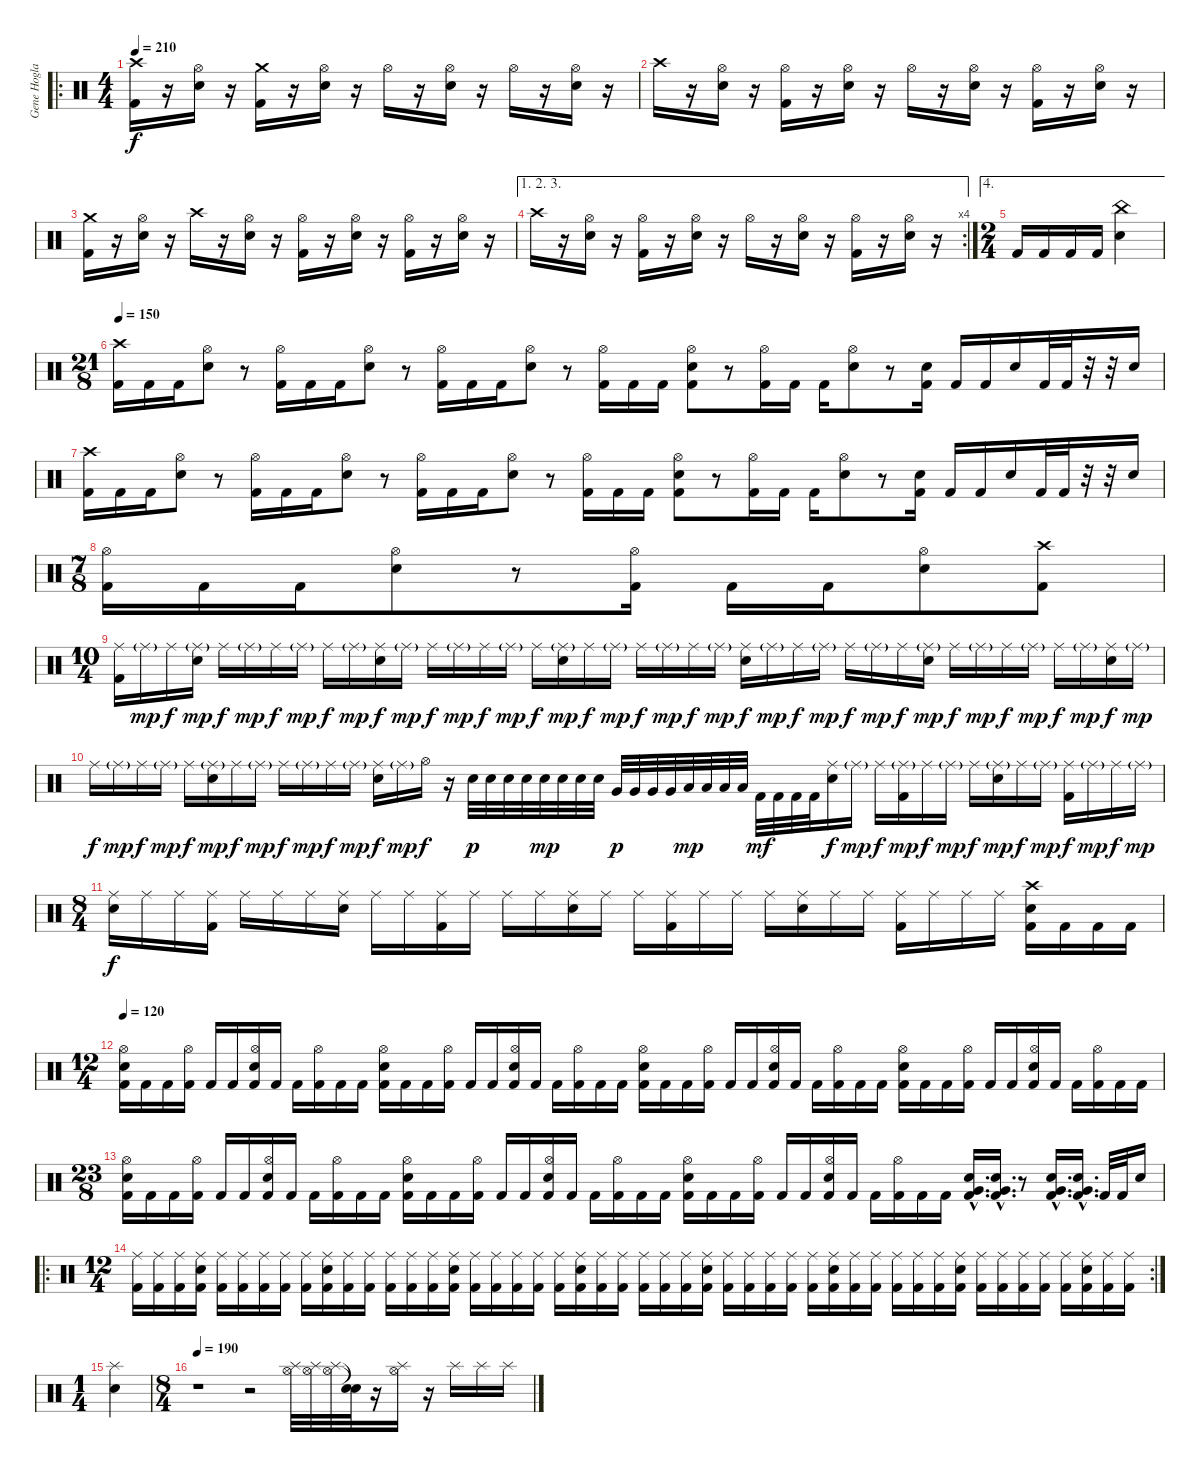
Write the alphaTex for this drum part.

\track ("Gene Hoglan" "Gene Hogla") {instrument percussion}
\staff {score}
\articulation defaults
\ro
\ts (4 4)
\tempo 210
\clef neutral
\ks c
("Crash high (hit)" "Kick (hit) 2").16{dy f} r.16 ("Hi-Hat (open)" "Electric Snare (hit)").16 r.16 ("Crash medium (hit)" "Kick (hit) 2").16 r.16 ("Hi-Hat (open)" "Electric Snare (hit)").16 r.16 "Hi-Hat (open)".16 r.16 ("Hi-Hat (open)" "Electric Snare (hit)").16 r.16 "Hi-Hat (open)".16 r.16 ("Hi-Hat (open)" "Electric Snare (hit)").16 r.16 |
"Crash high (hit)".16 r.16 ("Hi-Hat (open)" "Electric Snare (hit)").16 r.16 ("Hi-Hat (open)" "Kick (hit) 2").16 r.16 ("Hi-Hat (open)" "Electric Snare (hit)").16 r.16 "Hi-Hat (open)".16 r.16 ("Hi-Hat (open)" "Electric Snare (hit)").16 r.16 ("Hi-Hat (open)" "Kick (hit) 2").16 r.16 ("Hi-Hat (open)" "Electric Snare (hit)").16 r.16 |
("Crash medium (hit)" "Kick (hit) 2").16 r.16 ("Hi-Hat (open)" "Electric Snare (hit)").16 r.16 "Crash high (hit)".16 r.16 ("Hi-Hat (open)" "Electric Snare (hit)").16 r.16 ("Hi-Hat (open)" "Kick (hit) 2").16 r.16 ("Hi-Hat (open)" "Electric Snare (hit)").16 r.16 ("Hi-Hat (open)" "Kick (hit) 2").16 r.16 ("Hi-Hat (open)" "Electric Snare (hit)").16 r.16 |
\ae (1 2 3)
\rc 4 "Crash high (hit)".16
r.16 ("Hi-Hat (open)" "Electric Snare (hit)").16 r.16 ("Hi-Hat (open)" "Kick (hit) 2").16 r.16 ("Hi-Hat (open)" "Electric Snare (hit)").16 r.16 "Hi-Hat (open)".16 r.16 ("Hi-Hat (open)" "Electric Snare (hit)").16 r.16 ("Hi-Hat (open)" "Kick (hit) 2").16 r.16 ("Hi-Hat (open)" "Electric Snare (hit)").16 r.16 |
\ae 4
\ts (2 4)
"Kick (hit) 2".16 "Kick (hit) 2".16 "Kick (hit) 2".16 "Kick (hit) 2".16 ("China (hit)" "Electric Snare (hit)").4 |
\ts (21 8)
\tempo 150
("Crash high (hit)" "Kick (hit) 2").16 "Kick (hit) 2".16 "Kick (hit) 2".16 ("Hi-Hat (open)" "Electric Snare (hit)").8 r.8 ("Hi-Hat (open)" "Kick (hit) 2").16 "Kick (hit) 2".16 "Kick (hit) 2".16 ("Hi-Hat (open)" "Electric Snare (hit)").8 r.8 ("Hi-Hat (open)" "Kick (hit) 2").16 "Kick (hit) 2".16 "Kick (hit) 2".16 ("Hi-Hat (open)" "Electric Snare (hit)").8 r.8 ("Hi-Hat (open)" "Kick (hit) 2").16 "Kick (hit) 2".16 "Kick (hit) 2".16 ("Hi-Hat (open)" "Electric Snare (hit)" "Kick (hit) 2").8 r.8 ("Hi-Hat (open)" "Kick (hit) 2").16 "Kick (hit) 2".16 "Kick (hit) 2".16 ("Hi-Hat (open)" "Electric Snare (hit)").8 r.8 ("Electric Snare (hit)" "Kick (hit) 2").16 "Kick (hit) 2".16 "Kick (hit) 2".16 "Electric Snare (hit)".16 "Kick (hit) 2".32 "Kick (hit) 2".32 r.32 r.32 "Electric Snare (hit)".16 |
("Crash high (hit)" "Kick (hit) 2").16 "Kick (hit) 2".16 "Kick (hit) 2".16 ("Hi-Hat (open)" "Electric Snare (hit)").8 r.8 ("Hi-Hat (open)" "Kick (hit) 2").16 "Kick (hit) 2".16 "Kick (hit) 2".16 ("Hi-Hat (open)" "Electric Snare (hit)").8 r.8 ("Hi-Hat (open)" "Kick (hit) 2").16 "Kick (hit) 2".16 "Kick (hit) 2".16 ("Hi-Hat (open)" "Electric Snare (hit)").8 r.8 ("Hi-Hat (open)" "Kick (hit) 2").16 "Kick (hit) 2".16 "Kick (hit) 2".16 ("Hi-Hat (open)" "Electric Snare (hit)" "Kick (hit) 2").8 r.8 ("Hi-Hat (open)" "Kick (hit) 2").16 "Kick (hit) 2".16 "Kick (hit) 2".16 ("Hi-Hat (open)" "Electric Snare (hit)").8 r.8 ("Electric Snare (hit)" "Kick (hit) 2").16 "Kick (hit) 2".16 "Kick (hit) 2".16 "Electric Snare (hit)".16 "Kick (hit) 2".32 "Kick (hit) 2".32 r.32 r.32 "Electric Snare (hit)".16 |
\ts (7 8)
("Hi-Hat (open)" "Kick (hit) 2").16 "Kick (hit) 2".16 "Kick (hit) 2".16 ("Hi-Hat (open)" "Electric Snare (hit)").8 r.8 ("Hi-Hat (open)" "Kick (hit) 2").16 "Kick (hit) 2".16 "Kick (hit) 2".16 ("Hi-Hat (open)" "Electric Snare (hit)").8 ("Crash high (hit)" "Kick (hit) 2").8 |
\ts (10 4)
("Ride (middle)" "Kick (hit) 2").16 "Ride (middle)"{g}.16{dy mp} "Ride (middle)".16{dy f} ("Ride (middle)"{g} "Electric Snare (hit)").16{dy mp} "Ride (middle)".16{dy f} "Ride (middle)"{g}.16{dy mp} "Ride (middle)".16{dy f} "Ride (middle)"{g}.16{dy mp} "Ride (middle)".16{dy f} "Ride (middle)"{g}.16{dy mp} ("Ride (middle)" "Electric Snare (hit)").16{dy f} "Ride (middle)"{g}.16{dy mp} "Ride (middle)".16{dy f} "Ride (middle)"{g}.16{dy mp} "Ride (middle)".16{dy f} "Ride (middle)"{g}.16{dy mp} "Ride (middle)".16{dy f} ("Ride (middle)"{g} "Electric Snare (hit)").16{dy mp} "Ride (middle)".16{dy f} "Ride (middle)"{g}.16{dy mp} "Ride (middle)".16{dy f} "Ride (middle)"{g}.16{dy mp} "Ride (middle)".16{dy f} "Ride (middle)"{g}.16{dy mp} ("Ride (middle)" "Electric Snare (hit)").16{dy f} "Ride (middle)"{g}.16{dy mp} "Ride (middle)".16{dy f} "Ride (middle)"{g}.16{dy mp} "Ride (middle)".16{dy f} "Ride (middle)"{g}.16{dy mp} "Ride (middle)".16{dy f} ("Ride (middle)"{g} "Electric Snare (hit)").16{dy mp} "Ride (middle)".16{dy f} "Ride (middle)"{g}.16{dy mp} "Ride (middle)".16{dy f} "Ride (middle)"{g}.16{dy mp} "Ride (middle)".16{dy f} "Ride (middle)"{g}.16{dy mp} ("Ride (middle)" "Electric Snare (hit)").16{dy f} "Ride (middle)"{g}.16{dy mp} |
"Ride (middle)".16{dy f} "Ride (middle)"{g}.16{dy mp} "Ride (middle)".16{dy f} "Ride (middle)"{g}.16{dy mp} "Ride (middle)".16{dy f} ("Ride (middle)"{g} "Electric Snare (hit)").16{dy mp} "Ride (middle)".16{dy f} "Ride (middle)"{g}.16{dy mp} "Ride (middle)".16{dy f} "Ride (middle)"{g}.16{dy mp} "Ride (middle)".16{dy f} "Ride (middle)"{g}.16{dy mp} ("Ride (middle)" "Electric Snare (hit)").16{dy f} "Ride (middle)"{g}.16{dy mp} "Hi-Hat (open)".16{dy f} r.16 "Electric Snare (hit)".32{dy p} "Electric Snare (hit)".32 "Electric Snare (hit)".32 "Electric Snare (hit)".32 "Electric Snare (hit)".32{dy mp} "Electric Snare (hit)".32 "Electric Snare (hit)".32 "Electric Snare (hit)".32 "Very Low Tom (hit)".32{dy p} "Very Low Tom (hit)".32 "Very Low Tom (hit)".32 "Very Low Tom (hit)".32 "Low Tom (hit)".32{dy mp} "Low Tom (hit)".32 "Low Tom (hit)".32 "Low Tom (hit)".32 "Kick (hit) 2".32{dy mf} "Kick (hit) 2".32 "Kick (hit) 2".32 "Kick (hit) 2".32 ("Ride (middle)" "Electric Snare (hit)").16{dy f} "Ride (middle)"{g}.16{dy mp} "Ride (middle)".16{dy f} ("Ride (middle)"{g} "Kick (hit) 2").16{dy mp} "Ride (middle)".16{dy f} "Ride (middle)"{g}.16{dy mp} "Ride (middle)".16{dy f} ("Ride (middle)"{g} "Electric Snare (hit)").16{dy mp} "Ride (middle)".16{dy f} "Ride (middle)"{g}.16{dy mp} ("Ride (middle)" "Kick (hit) 2").16{dy f} "Ride (middle)"{g}.16{dy mp} "Ride (middle)".16{dy f} "Ride (middle)"{g}.16{dy mp} |
\ts (8 4)
("Ride (middle)" "Electric Snare (hit)").16{dy f} "Ride (middle)".16 "Ride (middle)".16 ("Ride (middle)" "Kick (hit) 2").16 "Ride (middle)".16 "Ride (middle)".16 "Ride (middle)".16 ("Ride (middle)" "Electric Snare (hit)").16 "Ride (middle)".16 "Ride (middle)".16 ("Ride (middle)" "Kick (hit) 2").16 "Ride (middle)".16 "Ride (middle)".16 "Ride (middle)".16 ("Ride (middle)" "Electric Snare (hit)").16 "Ride (middle)".16 "Ride (middle)".16 ("Ride (middle)" "Kick (hit) 2").16 "Ride (middle)".16 "Ride (middle)".16 "Ride (middle)".16 ("Ride (middle)" "Electric Snare (hit)").16 "Ride (middle)".16 "Ride (middle)".16 ("Ride (middle)" "Kick (hit) 2").16 "Ride (middle)".16 "Ride (middle)".16 "Ride (middle)".16 ("Crash high (hit)" "Electric Snare (hit)" "Kick (hit) 2").16 "Kick (hit) 2".16 "Kick (hit) 2".16 "Kick (hit) 2".16 |
\ts (12 4)
\tempo 120
("Hi-Hat (open)" "Electric Snare (hit)" "Kick (hit) 2").16 "Kick (hit) 2".16 "Kick (hit) 2".16 ("Hi-Hat (open)" "Kick (hit) 2").16 "Kick (hit) 2".16 "Kick (hit) 2".16 ("Hi-Hat (open)" "Electric Snare (hit)" "Kick (hit) 2").16 "Kick (hit) 2".16 "Kick (hit) 2".16 ("Hi-Hat (open)" "Kick (hit) 2").16 "Kick (hit) 2".16 "Kick (hit) 2".16 ("Hi-Hat (open)" "Electric Snare (hit)" "Kick (hit) 2").16 "Kick (hit) 2".16 "Kick (hit) 2".16 ("Hi-Hat (open)" "Kick (hit) 2").16 "Kick (hit) 2".16 "Kick (hit) 2".16 ("Hi-Hat (open)" "Electric Snare (hit)" "Kick (hit) 2").16 "Kick (hit) 2".16 "Kick (hit) 2".16 ("Hi-Hat (open)" "Kick (hit) 2").16 "Kick (hit) 2".16 "Kick (hit) 2".16 ("Hi-Hat (open)" "Electric Snare (hit)" "Kick (hit) 2").16 "Kick (hit) 2".16 "Kick (hit) 2".16 ("Hi-Hat (open)" "Kick (hit) 2").16 "Kick (hit) 2".16 "Kick (hit) 2".16 ("Hi-Hat (open)" "Electric Snare (hit)" "Kick (hit) 2").16 "Kick (hit) 2".16 "Kick (hit) 2".16 ("Hi-Hat (open)" "Kick (hit) 2").16 "Kick (hit) 2".16 "Kick (hit) 2".16 ("Hi-Hat (open)" "Electric Snare (hit)" "Kick (hit) 2").16 "Kick (hit) 2".16 "Kick (hit) 2".16 ("Hi-Hat (open)" "Kick (hit) 2").16 "Kick (hit) 2".16 "Kick (hit) 2".16 ("Hi-Hat (open)" "Electric Snare (hit)" "Kick (hit) 2").16 "Kick (hit) 2".16 "Kick (hit) 2".16 ("Hi-Hat (open)" "Kick (hit) 2").16 "Kick (hit) 2".16 "Kick (hit) 2".16 |
\ts (23 8)
("Hi-Hat (open)" "Electric Snare (hit)" "Kick (hit) 2").16 "Kick (hit) 2".16 "Kick (hit) 2".16 ("Hi-Hat (open)" "Kick (hit) 2").16 "Kick (hit) 2".16 "Kick (hit) 2".16 ("Hi-Hat (open)" "Electric Snare (hit)" "Kick (hit) 2").16 "Kick (hit) 2".16 "Kick (hit) 2".16 ("Hi-Hat (open)" "Kick (hit) 2").16 "Kick (hit) 2".16 "Kick (hit) 2".16 ("Hi-Hat (open)" "Electric Snare (hit)" "Kick (hit) 2").16 "Kick (hit) 2".16 "Kick (hit) 2".16 ("Hi-Hat (open)" "Kick (hit) 2").16 "Kick (hit) 2".16 "Kick (hit) 2".16 ("Hi-Hat (open)" "Electric Snare (hit)" "Kick (hit) 2").16 "Kick (hit) 2".16 "Kick (hit) 2".16 ("Hi-Hat (open)" "Kick (hit) 2").16 "Kick (hit) 2".16 "Kick (hit) 2".16 ("Hi-Hat (open)" "Electric Snare (hit)" "Kick (hit) 2").16 "Kick (hit) 2".16 "Kick (hit) 2".16 ("Hi-Hat (open)" "Kick (hit) 2").16 "Kick (hit) 2".16 "Kick (hit) 2".16 ("Hi-Hat (open)" "Electric Snare (hit)" "Kick (hit) 2").16 "Kick (hit) 2".16 "Kick (hit) 2".16 ("Hi-Hat (open)" "Kick (hit) 2").16 "Kick (hit) 2".16 "Kick (hit) 2".16 ("Electric Snare (hit)"{hac} "Very Low Tom (hit)"{hac} "Kick (hit) 2"{hac}).16{d} ("Electric Snare (hit)"{hac} "Very Low Tom (hit)"{hac} "Kick (hit) 2"{hac}).16{d} r.8 ("Electric Snare (hit)"{hac} "Very Low Tom (hit)"{hac} "Kick (hit) 2"{hac}).16{d} ("Electric Snare (hit)"{hac} "Very Low Tom (hit)"{hac} "Kick (hit) 2"{hac}).16{d} "Kick (hit) 2".32 "Kick (hit) 2".32 "Electric Snare (hit)".16 |
\ro
\rc 2
\ts (12 4)
("Ride (middle)" "Kick (hit) 2").16 ("Ride (middle)" "Kick (hit) 2").16 ("Ride (middle)" "Kick (hit) 2").16 ("Ride (middle)" "Electric Snare (hit)" "Kick (hit) 2").16 ("Ride (middle)" "Kick (hit) 2").16 ("Ride (middle)" "Kick (hit) 2").16 ("Ride (middle)" "Kick (hit) 2").16 ("Ride (middle)" "Kick (hit) 2").16 ("Ride (middle)" "Kick (hit) 2").16 ("Ride (middle)" "Electric Snare (hit)" "Kick (hit) 2").16 ("Ride (middle)" "Kick (hit) 2").16 ("Ride (middle)" "Kick (hit) 2").16 ("Ride (middle)" "Kick (hit) 2").16 ("Ride (middle)" "Kick (hit) 2").16 ("Ride (middle)" "Kick (hit) 2").16 ("Ride (middle)" "Electric Snare (hit)" "Kick (hit) 2").16 ("Ride (middle)" "Kick (hit) 2").16 ("Ride (middle)" "Kick (hit) 2").16 ("Ride (middle)" "Kick (hit) 2").16 ("Ride (middle)" "Kick (hit) 2").16 ("Ride (middle)" "Kick (hit) 2").16 ("Ride (middle)" "Electric Snare (hit)" "Kick (hit) 2").16 ("Ride (middle)" "Kick (hit) 2").16 ("Ride (middle)" "Kick (hit) 2").16 ("Ride (middle)" "Kick (hit) 2").16 ("Ride (middle)" "Kick (hit) 2").16 ("Ride (middle)" "Kick (hit) 2").16 ("Ride (middle)" "Electric Snare (hit)" "Kick (hit) 2").16 ("Ride (middle)" "Kick (hit) 2").16 ("Ride (middle)" "Kick (hit) 2").16 ("Ride (middle)" "Kick (hit) 2").16 ("Ride (middle)" "Kick (hit) 2").16 ("Ride (middle)" "Kick (hit) 2").16 ("Ride (middle)" "Electric Snare (hit)" "Kick (hit) 2").16 ("Ride (middle)" "Kick (hit) 2").16 ("Ride (middle)" "Kick (hit) 2").16 ("Ride (middle)" "Kick (hit) 2").16 ("Ride (middle)" "Kick (hit) 2").16 ("Ride (middle)" "Kick (hit) 2").16 ("Ride (middle)" "Electric Snare (hit)" "Kick (hit) 2").16 ("Ride (middle)" "Kick (hit) 2").16 ("Ride (middle)" "Kick (hit) 2").16 ("Ride (middle)" "Kick (hit) 2").16 ("Ride (middle)" "Kick (hit) 2").16 ("Ride (middle)" "Kick (hit) 2").16 ("Ride (middle)" "Electric Snare (hit)" "Kick (hit) 2").16 ("Ride (middle)" "Kick (hit) 2").16 ("Ride (middle)" "Kick (hit) 2").16 |
\ts (1 4)
("Splash (hit)" "Electric Snare (hit)").4 |
\ts (8 4)
\tempo 190
r.1 r.2 ("Splash (hit)" "Hi-Hat (open)").32 ("Splash (hit)" "Hi-Hat (open)").32 ("Splash (hit)" "Hi-Hat (open)").32 ("Snare (hit)"{t} "Snare (hit)"{t}).32 r.16 ("Splash (hit)" "Hi-Hat (open)").16 r.16 "Splash (hit)".16 "Splash (hit)".16 "Splash (hit)".16
